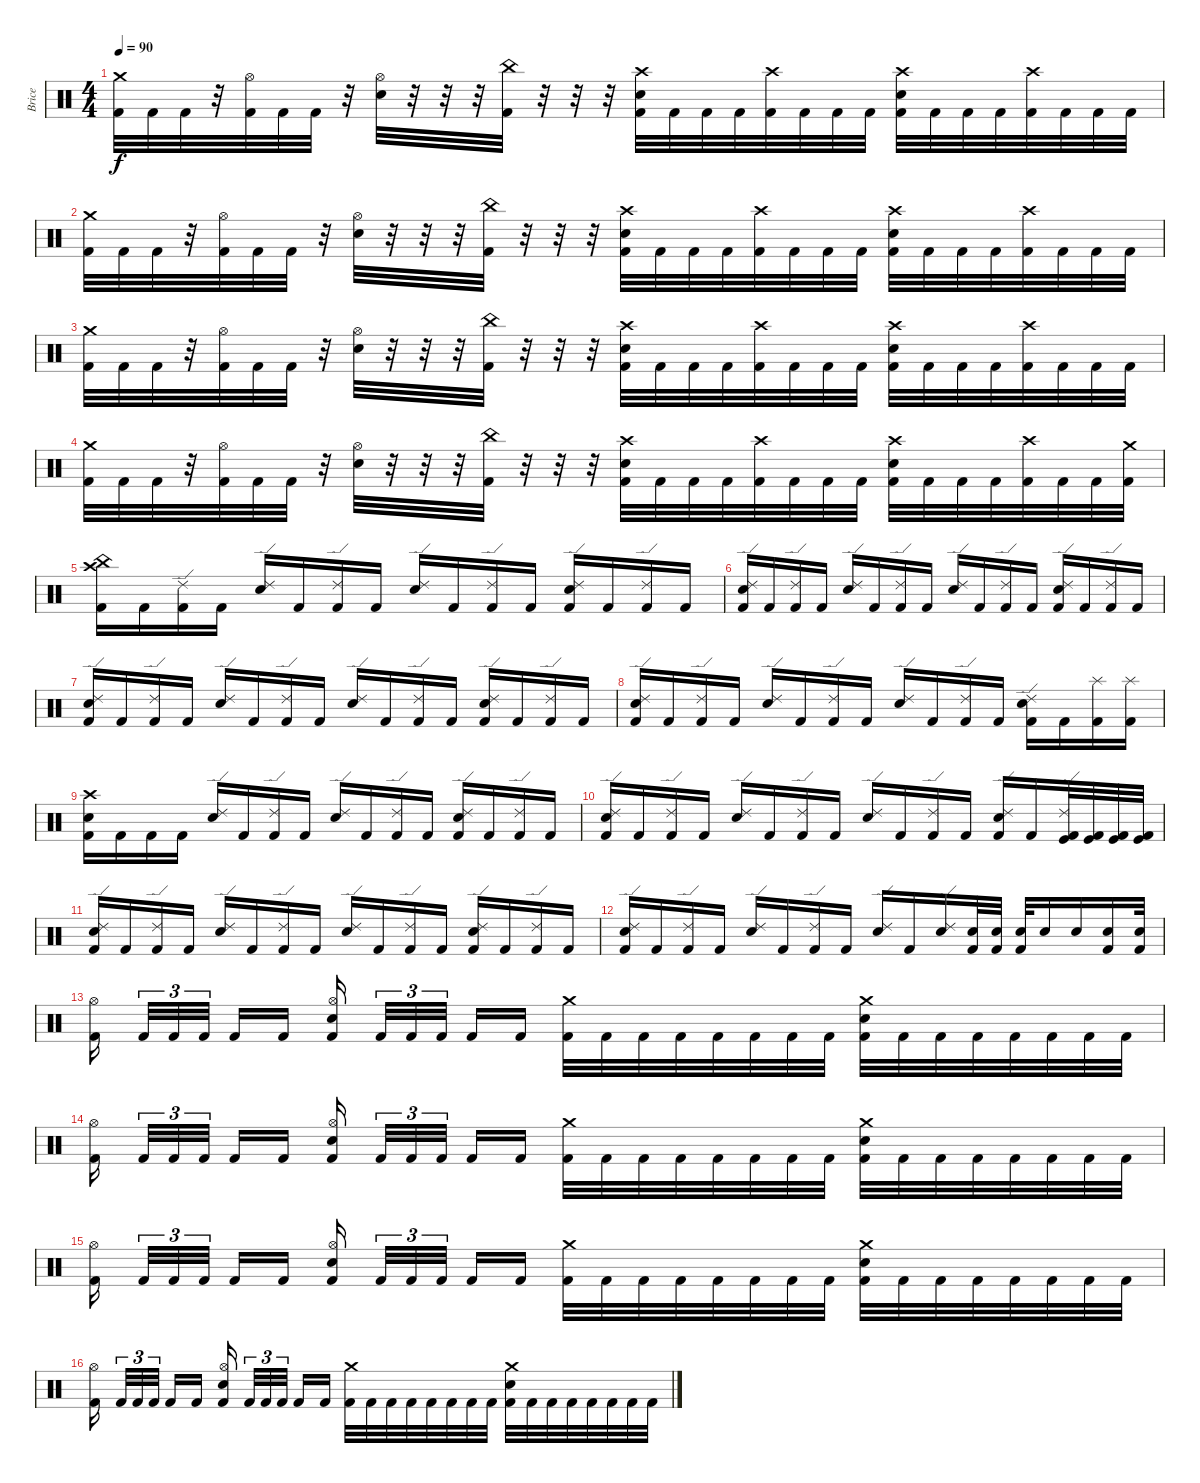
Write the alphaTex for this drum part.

\track ("Brice" "Brice") {instrument percussion}
\staff {score}
\articulation defaults
\ts (4 4)
\tempo 90
\clef neutral
\ks c
("Crash medium (hit)" "Kick (hit) 2").32{dy f} "Kick (hit) 2".32 "Kick (hit) 2".32 r.32 ("Hi-Hat (open)" "Kick (hit) 2").32 "Kick (hit) 2".32 "Kick (hit) 2".32 r.32 ("Hi-Hat (open)" "Electric Snare (hit)").32 r.32 r.32 r.32 ("China (hit)" "Kick (hit) 2").32 r.32 r.32 r.32 ("Crash high (hit)" "Electric Snare (hit)" "Kick (hit) 2").32 "Kick (hit) 2".32 "Kick (hit) 2".32 "Kick (hit) 2".32 ("Crash high (hit)" "Kick (hit) 2").32 "Kick (hit) 2".32 "Kick (hit) 2".32 "Kick (hit) 2".32 ("Crash high (hit)" "Electric Snare (hit)" "Kick (hit) 2").32 "Kick (hit) 2".32 "Kick (hit) 2".32 "Kick (hit) 2".32 ("Crash high (hit)" "Kick (hit) 2").32 "Kick (hit) 2".32 "Kick (hit) 2".32 "Kick (hit) 2".32 |
("Crash medium (hit)" "Kick (hit) 2").32 "Kick (hit) 2".32 "Kick (hit) 2".32 r.32 ("Hi-Hat (open)" "Kick (hit) 2").32 "Kick (hit) 2".32 "Kick (hit) 2".32 r.32 ("Hi-Hat (open)" "Electric Snare (hit)").32 r.32 r.32 r.32 ("China (hit)" "Kick (hit) 2").32 r.32 r.32 r.32 ("Crash high (hit)" "Electric Snare (hit)" "Kick (hit) 2").32 "Kick (hit) 2".32 "Kick (hit) 2".32 "Kick (hit) 2".32 ("Crash high (hit)" "Kick (hit) 2").32 "Kick (hit) 2".32 "Kick (hit) 2".32 "Kick (hit) 2".32 ("Crash high (hit)" "Electric Snare (hit)" "Kick (hit) 2").32 "Kick (hit) 2".32 "Kick (hit) 2".32 "Kick (hit) 2".32 ("Crash high (hit)" "Kick (hit) 2").32 "Kick (hit) 2".32 "Kick (hit) 2".32 "Kick (hit) 2".32 |
("Crash medium (hit)" "Kick (hit) 2").32 "Kick (hit) 2".32 "Kick (hit) 2".32 r.32 ("Hi-Hat (open)" "Kick (hit) 2").32 "Kick (hit) 2".32 "Kick (hit) 2".32 r.32 ("Hi-Hat (open)" "Electric Snare (hit)").32 r.32 r.32 r.32 ("China (hit)" "Kick (hit) 2").32 r.32 r.32 r.32 ("Crash high (hit)" "Electric Snare (hit)" "Kick (hit) 2").32 "Kick (hit) 2".32 "Kick (hit) 2".32 "Kick (hit) 2".32 ("Crash high (hit)" "Kick (hit) 2").32 "Kick (hit) 2".32 "Kick (hit) 2".32 "Kick (hit) 2".32 ("Crash high (hit)" "Electric Snare (hit)" "Kick (hit) 2").32 "Kick (hit) 2".32 "Kick (hit) 2".32 "Kick (hit) 2".32 ("Crash high (hit)" "Kick (hit) 2").32 "Kick (hit) 2".32 "Kick (hit) 2".32 "Kick (hit) 2".32 |
("Crash medium (hit)" "Kick (hit) 2").32 "Kick (hit) 2".32 "Kick (hit) 2".32 r.32 ("Hi-Hat (open)" "Kick (hit) 2").32 "Kick (hit) 2".32 "Kick (hit) 2".32 r.32 ("Hi-Hat (open)" "Electric Snare (hit)").32 r.32 r.32 r.32 ("China (hit)" "Kick (hit) 2").32 r.32 r.32 r.32 ("Crash high (hit)" "Electric Snare (hit)" "Kick (hit) 2").32 "Kick (hit) 2".32 "Kick (hit) 2".32 "Kick (hit) 2".32 ("Crash high (hit)" "Kick (hit) 2").32 "Kick (hit) 2".32 "Kick (hit) 2".32 "Kick (hit) 2".32 ("Crash high (hit)" "Electric Snare (hit)" "Kick (hit) 2").32 "Kick (hit) 2".32 "Kick (hit) 2".32 "Kick (hit) 2".32 ("Crash high (hit)" "Kick (hit) 2").32 "Kick (hit) 2".32 "Kick (hit) 2".32 ("Crash medium (hit)" "Kick (hit) 2").32 |
("Crash high (hit)" "China (hit)" "Kick (hit) 2").16 "Kick (hit) 2".16 ("Ride (edge) 2" "Kick (hit) 2").16 "Kick (hit) 2".16 ("Ride (edge) 2" "Electric Snare (hit)").16 "Kick (hit) 2".16 ("Ride (edge) 2" "Kick (hit) 2").16 "Kick (hit) 2".16 ("Ride (edge) 2" "Electric Snare (hit)").16 "Kick (hit) 2".16 ("Ride (edge) 2" "Kick (hit) 2").16 "Kick (hit) 2".16 ("Ride (edge) 2" "Electric Snare (hit)" "Kick (hit) 2").16 "Kick (hit) 2".16 ("Ride (edge) 2" "Kick (hit) 2").16 "Kick (hit) 2".16 |
("Ride (edge) 2" "Electric Snare (hit)" "Kick (hit) 2").16 "Kick (hit) 2".16 ("Ride (edge) 2" "Kick (hit) 2").16 "Kick (hit) 2".16 ("Ride (edge) 2" "Electric Snare (hit)").16 "Kick (hit) 2".16 ("Ride (edge) 2" "Kick (hit) 2").16 "Kick (hit) 2".16 ("Ride (edge) 2" "Electric Snare (hit)").16 "Kick (hit) 2".16 ("Ride (edge) 2" "Kick (hit) 2").16 "Kick (hit) 2".16 ("Ride (edge) 2" "Electric Snare (hit)" "Kick (hit) 2").16 "Kick (hit) 2".16 ("Ride (edge) 2" "Kick (hit) 2").16 "Kick (hit) 2".16 |
("Ride (edge) 2" "Electric Snare (hit)" "Kick (hit) 2").16 "Kick (hit) 2".16 ("Ride (edge) 2" "Kick (hit) 2").16 "Kick (hit) 2".16 ("Ride (edge) 2" "Electric Snare (hit)").16 "Kick (hit) 2".16 ("Ride (edge) 2" "Kick (hit) 2").16 "Kick (hit) 2".16 ("Ride (edge) 2" "Electric Snare (hit)").16 "Kick (hit) 2".16 ("Ride (edge) 2" "Kick (hit) 2").16 "Kick (hit) 2".16 ("Ride (edge) 2" "Electric Snare (hit)" "Kick (hit) 2").16 "Kick (hit) 2".16 ("Ride (edge) 2" "Kick (hit) 2").16 "Kick (hit) 2".16 |
("Ride (edge) 2" "Electric Snare (hit)" "Kick (hit) 2").16 "Kick (hit) 2".16 ("Ride (edge) 2" "Kick (hit) 2").16 "Kick (hit) 2".16 ("Ride (edge) 2" "Electric Snare (hit)").16 "Kick (hit) 2".16 ("Ride (edge) 2" "Kick (hit) 2").16 "Kick (hit) 2".16 ("Ride (edge) 2" "Electric Snare (hit)").16 "Kick (hit) 2".16 ("Ride (edge) 2" "Kick (hit) 2").16 "Kick (hit) 2".16 ("Ride (edge) 2" "Electric Snare (hit)" "Kick (hit) 2").16 "Kick (hit) 2".16 ("Splash (hit)" "Kick (hit) 2").16 ("Splash (hit)" "Kick (hit) 2").16 |
("Crash high (hit)" "Electric Snare (hit)" "Kick (hit) 2").16 "Kick (hit) 2".16 "Kick (hit) 2".16 "Kick (hit) 2".16 ("Ride (edge) 2" "Electric Snare (hit)").16 "Kick (hit) 2".16 ("Ride (edge) 2" "Kick (hit) 2").16 "Kick (hit) 2".16 ("Ride (edge) 2" "Electric Snare (hit)").16 "Kick (hit) 2".16 ("Ride (edge) 2" "Kick (hit) 2").16 "Kick (hit) 2".16 ("Ride (edge) 2" "Electric Snare (hit)" "Kick (hit) 2").16 "Kick (hit) 2".16 ("Ride (edge) 2" "Kick (hit) 2").16 "Kick (hit) 2".16 |
("Ride (edge) 2" "Electric Snare (hit)" "Kick (hit) 2").16 "Kick (hit) 2".16 ("Ride (edge) 2" "Kick (hit) 2").16 "Kick (hit) 2".16 ("Ride (edge) 2" "Electric Snare (hit)").16 "Kick (hit) 2".16 ("Ride (edge) 2" "Kick (hit) 2").16 "Kick (hit) 2".16 ("Ride (edge) 2" "Electric Snare (hit)").16 "Kick (hit) 2".16 ("Ride (edge) 2" "Kick (hit) 2").16 "Kick (hit) 2".16 ("Ride (edge) 2" "Electric Snare (hit)" "Kick (hit) 2").16 "Kick (hit) 2".16 ("Ride (edge) 2" "Kick (hit)" "Kick (hit) 2").32 ("Kick (hit)" "Kick (hit) 2").32 ("Kick (hit)" "Kick (hit) 2").32 ("Kick (hit)" "Kick (hit) 2").32 |
("Ride (edge) 2" "Electric Snare (hit)" "Kick (hit) 2").16 "Kick (hit) 2".16 ("Ride (edge) 2" "Kick (hit) 2").16 "Kick (hit) 2".16 ("Ride (edge) 2" "Electric Snare (hit)").16 "Kick (hit) 2".16 ("Ride (edge) 2" "Kick (hit) 2").16 "Kick (hit) 2".16 ("Ride (edge) 2" "Electric Snare (hit)").16 "Kick (hit) 2".16 ("Ride (edge) 2" "Kick (hit) 2").16 "Kick (hit) 2".16 ("Ride (edge) 2" "Electric Snare (hit)" "Kick (hit) 2").16 "Kick (hit) 2".16 ("Ride (edge) 2" "Kick (hit) 2").16 "Kick (hit) 2".16 |
("Ride (edge) 2" "Electric Snare (hit)" "Kick (hit) 2").16 "Kick (hit) 2".16 ("Ride (edge) 2" "Kick (hit) 2").16 "Kick (hit) 2".16 ("Ride (edge) 2" "Electric Snare (hit)").16 "Kick (hit) 2".16 ("Ride (edge) 2" "Kick (hit) 2").16 "Kick (hit) 2".16 ("Ride (edge) 2" "Electric Snare (hit)").16 "Kick (hit) 2".16 ("Ride (edge) 2" "Electric Snare (hit)").16 ("Electric Snare (hit)" "Kick (hit) 2").32 ("Electric Snare (hit)" "Kick (hit) 2").32 ("Electric Snare (hit)" "Kick (hit) 2").32 "Electric Snare (hit)".16 "Electric Snare (hit)".16 ("Electric Snare (hit)" "Kick (hit) 2").16 ("Electric Snare (hit)" "Kick (hit) 2").32 |
("Hi-Hat (open)" "Kick (hit) 2").16 "Kick (hit) 2".32{tu (3 2)} "Kick (hit) 2".32{tu (3 2)} "Kick (hit) 2".32{tu (3 2)} "Kick (hit) 2".16 "Kick (hit) 2".16 ("Hi-Hat (open)" "Electric Snare (hit)" "Kick (hit) 2").16 "Kick (hit) 2".32{tu (3 2)} "Kick (hit) 2".32{tu (3 2)} "Kick (hit) 2".32{tu (3 2)} "Kick (hit) 2".16 "Kick (hit) 2".16 ("Crash medium (hit)" "Kick (hit) 2").32 "Kick (hit) 2".32 "Kick (hit) 2".32 "Kick (hit) 2".32 "Kick (hit) 2".32 "Kick (hit) 2".32 "Kick (hit) 2".32 "Kick (hit) 2".32 ("Crash medium (hit)" "Electric Snare (hit)" "Kick (hit) 2").32 "Kick (hit) 2".32 "Kick (hit) 2".32 "Kick (hit) 2".32 "Kick (hit) 2".32 "Kick (hit) 2".32 "Kick (hit) 2".32 "Kick (hit) 2".32 |
("Hi-Hat (open)" "Kick (hit) 2").16 "Kick (hit) 2".32{tu (3 2)} "Kick (hit) 2".32{tu (3 2)} "Kick (hit) 2".32{tu (3 2)} "Kick (hit) 2".16 "Kick (hit) 2".16 ("Hi-Hat (open)" "Electric Snare (hit)" "Kick (hit) 2").16 "Kick (hit) 2".32{tu (3 2)} "Kick (hit) 2".32{tu (3 2)} "Kick (hit) 2".32{tu (3 2)} "Kick (hit) 2".16 "Kick (hit) 2".16 ("Crash medium (hit)" "Kick (hit) 2").32 "Kick (hit) 2".32 "Kick (hit) 2".32 "Kick (hit) 2".32 "Kick (hit) 2".32 "Kick (hit) 2".32 "Kick (hit) 2".32 "Kick (hit) 2".32 ("Crash medium (hit)" "Electric Snare (hit)" "Kick (hit) 2").32 "Kick (hit) 2".32 "Kick (hit) 2".32 "Kick (hit) 2".32 "Kick (hit) 2".32 "Kick (hit) 2".32 "Kick (hit) 2".32 "Kick (hit) 2".32 |
("Hi-Hat (open)" "Kick (hit) 2").16 "Kick (hit) 2".32{tu (3 2)} "Kick (hit) 2".32{tu (3 2)} "Kick (hit) 2".32{tu (3 2)} "Kick (hit) 2".16 "Kick (hit) 2".16 ("Hi-Hat (open)" "Electric Snare (hit)" "Kick (hit) 2").16 "Kick (hit) 2".32{tu (3 2)} "Kick (hit) 2".32{tu (3 2)} "Kick (hit) 2".32{tu (3 2)} "Kick (hit) 2".16 "Kick (hit) 2".16 ("Crash medium (hit)" "Kick (hit) 2").32 "Kick (hit) 2".32 "Kick (hit) 2".32 "Kick (hit) 2".32 "Kick (hit) 2".32 "Kick (hit) 2".32 "Kick (hit) 2".32 "Kick (hit) 2".32 ("Crash medium (hit)" "Electric Snare (hit)" "Kick (hit) 2").32 "Kick (hit) 2".32 "Kick (hit) 2".32 "Kick (hit) 2".32 "Kick (hit) 2".32 "Kick (hit) 2".32 "Kick (hit) 2".32 "Kick (hit) 2".32 |
("Hi-Hat (open)" "Kick (hit) 2").16 "Kick (hit) 2".32{tu (3 2)} "Kick (hit) 2".32{tu (3 2)} "Kick (hit) 2".32{tu (3 2)} "Kick (hit) 2".16 "Kick (hit) 2".16 ("Hi-Hat (open)" "Electric Snare (hit)" "Kick (hit) 2").16 "Kick (hit) 2".32{tu (3 2)} "Kick (hit) 2".32{tu (3 2)} "Kick (hit) 2".32{tu (3 2)} "Kick (hit) 2".16 "Kick (hit) 2".16 ("Crash medium (hit)" "Kick (hit) 2").32 "Kick (hit) 2".32 "Kick (hit) 2".32 "Kick (hit) 2".32 "Kick (hit) 2".32 "Kick (hit) 2".32 "Kick (hit) 2".32 "Kick (hit) 2".32 ("Crash medium (hit)" "Electric Snare (hit)" "Kick (hit) 2").32 "Kick (hit) 2".32 "Kick (hit) 2".32 "Kick (hit) 2".32 "Kick (hit) 2".32 "Kick (hit) 2".32 "Kick (hit) 2".32 "Kick (hit) 2".32
